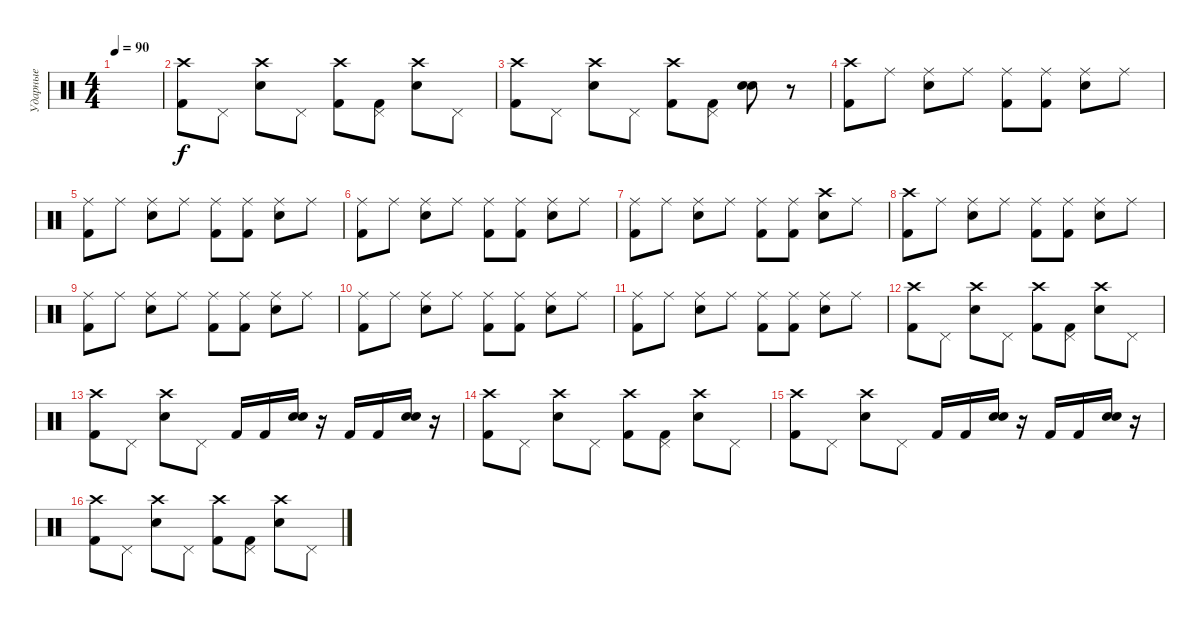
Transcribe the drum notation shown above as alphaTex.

\track ("Ударные" "Ударные") {instrument percussion}
\staff {score}
\articulation defaults
\ts (4 4)
\tempo 90
\clef neutral
\ks c
|
("Crash high (hit)" "Kick (hit) 2").8 "Pedal Hi-Hat (hit)".8 ("Crash high (hit)" "Snare (hit) 2").8 "Pedal Hi-Hat (hit)".8 ("Crash high (hit)" "Kick (hit) 2").8 ("Pedal Hi-Hat (hit)" "Kick (hit) 2").8 ("Crash high (hit)" "Snare (hit) 2").8 "Pedal Hi-Hat (hit)".8 |
("Crash high (hit)" "Kick (hit) 2").8 "Pedal Hi-Hat (hit)".8 ("Crash high (hit)" "Snare (hit) 2").8 "Pedal Hi-Hat (hit)".8 ("Crash high (hit)" "Kick (hit) 2").8 ("Pedal Hi-Hat (hit)" "Kick (hit) 2").8 ("Electric Snare (hit)" "Snare (hit) 2").8 r.8 |
("Crash high (hit)" "Kick (hit) 2").8 "Ride (middle)".8 ("Ride (middle)" "Snare (hit) 2").8 "Ride (middle)".8 ("Ride (middle)" "Kick (hit) 2").8 ("Ride (middle)" "Kick (hit) 2").8 ("Ride (middle)" "Snare (hit) 2").8 "Ride (middle)".8 |
("Ride (middle)" "Kick (hit) 2").8 "Ride (middle)".8 ("Ride (middle)" "Snare (hit) 2").8 "Ride (middle)".8 ("Ride (middle)" "Kick (hit) 2").8 ("Ride (middle)" "Kick (hit) 2").8 ("Ride (middle)" "Snare (hit) 2").8 "Ride (middle)".8 |
("Ride (middle)" "Kick (hit) 2").8 "Ride (middle)".8 ("Ride (middle)" "Snare (hit) 2").8 "Ride (middle)".8 ("Ride (middle)" "Kick (hit) 2").8 ("Ride (middle)" "Kick (hit) 2").8 ("Ride (middle)" "Snare (hit) 2").8 "Ride (middle)".8 |
("Ride (middle)" "Kick (hit) 2").8 "Ride (middle)".8 ("Ride (middle)" "Snare (hit) 2").8 "Ride (middle)".8 ("Ride (middle)" "Kick (hit) 2").8 ("Ride (middle)" "Kick (hit) 2").8 ("Crash high (hit)" "Snare (hit) 2").8 "Ride (middle)".8 |
("Crash high (hit)" "Kick (hit) 2").8 "Ride (middle)".8 ("Ride (middle)" "Snare (hit) 2").8 "Ride (middle)".8 ("Ride (middle)" "Kick (hit) 2").8 ("Ride (middle)" "Kick (hit) 2").8 ("Ride (middle)" "Snare (hit) 2").8 "Ride (middle)".8 |
("Ride (middle)" "Kick (hit) 2").8 "Ride (middle)".8 ("Ride (middle)" "Snare (hit) 2").8 "Ride (middle)".8 ("Ride (middle)" "Kick (hit) 2").8 ("Ride (middle)" "Kick (hit) 2").8 ("Ride (middle)" "Snare (hit) 2").8 "Ride (middle)".8 |
("Ride (middle)" "Kick (hit) 2").8 "Ride (middle)".8 ("Ride (middle)" "Snare (hit) 2").8 "Ride (middle)".8 ("Ride (middle)" "Kick (hit) 2").8 ("Ride (middle)" "Kick (hit) 2").8 ("Ride (middle)" "Snare (hit) 2").8 "Ride (middle)".8 |
("Ride (middle)" "Kick (hit) 2").8 "Ride (middle)".8 ("Ride (middle)" "Snare (hit) 2").8 "Ride (middle)".8 ("Ride (middle)" "Kick (hit) 2").8 ("Ride (middle)" "Kick (hit) 2").8 ("Ride (middle)" "Snare (hit) 2").8 "Ride (middle)".8 |
("Crash high (hit)" "Kick (hit) 2").8 "Pedal Hi-Hat (hit)".8 ("Crash high (hit)" "Snare (hit) 2").8 "Pedal Hi-Hat (hit)".8 ("Crash high (hit)" "Kick (hit) 2").8 ("Pedal Hi-Hat (hit)" "Kick (hit) 2").8 ("Crash high (hit)" "Snare (hit) 2").8 "Pedal Hi-Hat (hit)".8 |
("Crash high (hit)" "Kick (hit) 2").8 "Pedal Hi-Hat (hit)".8 ("Crash high (hit)" "Snare (hit) 2").8 "Pedal Hi-Hat (hit)".8 "Kick (hit) 2".16 "Kick (hit) 2".16 ("Electric Snare (hit)" "Snare (hit) 2").16 r.16 "Kick (hit) 2".16 "Kick (hit) 2".16 ("Electric Snare (hit)" "Snare (hit) 2").16 r.16 |
("Crash high (hit)" "Kick (hit) 2").8 "Pedal Hi-Hat (hit)".8 ("Crash high (hit)" "Snare (hit) 2").8 "Pedal Hi-Hat (hit)".8 ("Crash high (hit)" "Kick (hit) 2").8 ("Pedal Hi-Hat (hit)" "Kick (hit) 2").8 ("Crash high (hit)" "Snare (hit) 2").8 "Pedal Hi-Hat (hit)".8 |
("Crash high (hit)" "Kick (hit) 2").8 "Pedal Hi-Hat (hit)".8 ("Crash high (hit)" "Snare (hit) 2").8 "Pedal Hi-Hat (hit)".8 "Kick (hit) 2".16 "Kick (hit) 2".16 ("Electric Snare (hit)" "Snare (hit) 2").16 r.16 "Kick (hit) 2".16 "Kick (hit) 2".16 ("Electric Snare (hit)" "Snare (hit) 2").16 r.16 |
("Crash high (hit)" "Kick (hit) 2").8 "Pedal Hi-Hat (hit)".8 ("Crash high (hit)" "Snare (hit) 2").8 "Pedal Hi-Hat (hit)".8 ("Crash high (hit)" "Kick (hit) 2").8 ("Pedal Hi-Hat (hit)" "Kick (hit) 2").8 ("Crash high (hit)" "Snare (hit) 2").8 "Pedal Hi-Hat (hit)".8
